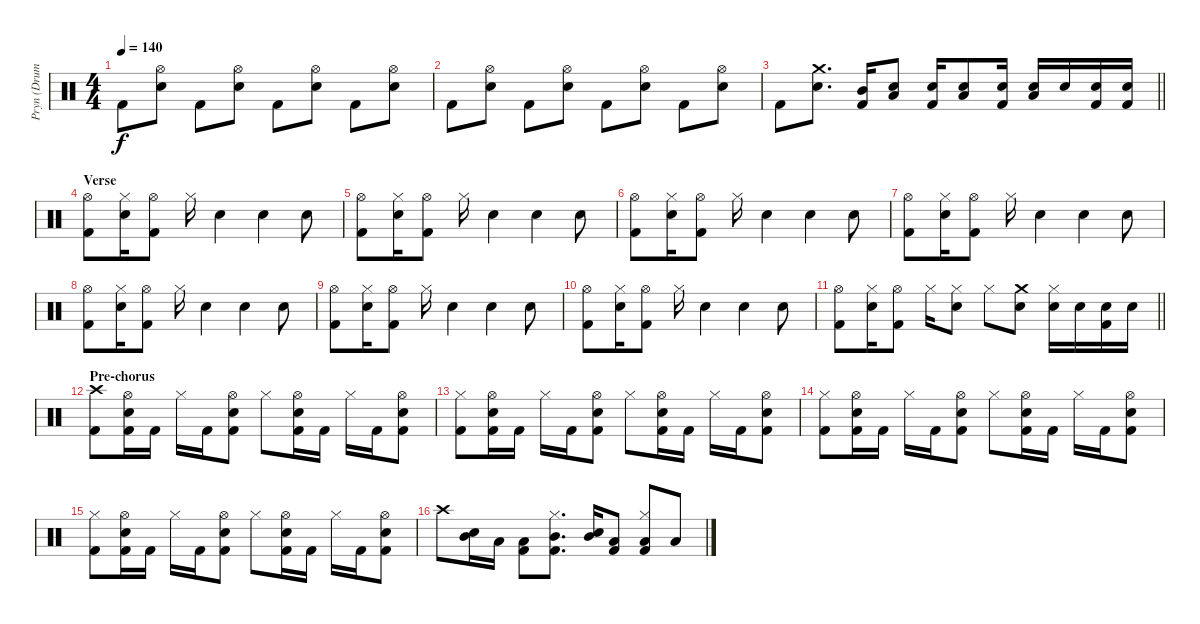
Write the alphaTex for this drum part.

\track ("Pryn (Drums)" "Pryn (Drum") {instrument percussion}
\staff {score}
\articulation defaults
\ts (4 4)
\tempo 140
\clef neutral
\ks c "Kick (hit) 2".8{dy f}
("Snare (hit) 2" "Hi-Hat (open)").8 "Kick (hit) 2".8 ("Snare (hit) 2" "Hi-Hat (open)").8 "Kick (hit) 2".8 ("Snare (hit) 2" "Hi-Hat (open)").8 "Kick (hit) 2".8 ("Snare (hit) 2" "Hi-Hat (open)").8 |
"Kick (hit) 2".8 ("Snare (hit) 2" "Hi-Hat (open)").8 "Kick (hit) 2".8 ("Snare (hit) 2" "Hi-Hat (open)").8 "Kick (hit) 2".8 ("Snare (hit) 2" "Hi-Hat (open)").8 "Kick (hit) 2".8 ("Snare (hit) 2" "Hi-Hat (open)").8 |
\barLineRight lightlight "Kick (hit) 2".8
("Snare (hit) 2" "Crash medium (hit)").8{d} ("Mid Tom (hit)" "Kick (hit) 2").16 ("Low Tom (hit)" "Snare (hit) 2").8 ("Snare (hit) 2" "Kick (hit) 2").16 ("Snare (hit) 2" "Low Tom (hit)").8 ("Snare (hit) 2" "Kick (hit) 2").16 ("Snare (hit) 2" "Low Tom (hit)").16 "Snare (hit) 2".16 ("Snare (hit) 2" "Kick (hit) 2").16 ("Snare (hit) 2" "Kick (hit) 2").16 |
\section ("" "Verse")
("Hi-Hat (open)" "Kick (hit) 2").8 ("Snare (hit) 2" "Hi-Hat (closed)").16 ("Hi-Hat (open)" "Kick (hit) 2").8 "Hi-Hat (closed)".16 "Snare (hit) 2".4 "Snare (hit) 2".4 "Snare (hit) 2".8 |
("Hi-Hat (open)" "Kick (hit) 2").8 ("Snare (hit) 2" "Hi-Hat (closed)").16 ("Hi-Hat (open)" "Kick (hit) 2").8 "Hi-Hat (closed)".16 "Snare (hit) 2".4 "Snare (hit) 2".4 "Snare (hit) 2".8 |
("Hi-Hat (open)" "Kick (hit) 2").8 ("Snare (hit) 2" "Hi-Hat (closed)").16 ("Hi-Hat (open)" "Kick (hit) 2").8 "Hi-Hat (closed)".16 "Snare (hit) 2".4 "Snare (hit) 2".4 "Snare (hit) 2".8 |
("Hi-Hat (open)" "Kick (hit) 2").8 ("Snare (hit) 2" "Hi-Hat (closed)").16 ("Hi-Hat (open)" "Kick (hit) 2").8 "Hi-Hat (closed)".16 "Snare (hit) 2".4 "Snare (hit) 2".4 "Snare (hit) 2".8 |
("Hi-Hat (open)" "Kick (hit) 2").8 ("Snare (hit) 2" "Hi-Hat (closed)").16 ("Hi-Hat (open)" "Kick (hit) 2").8 "Hi-Hat (closed)".16 "Snare (hit) 2".4 "Snare (hit) 2".4 "Snare (hit) 2".8 |
("Hi-Hat (open)" "Kick (hit) 2").8 ("Snare (hit) 2" "Hi-Hat (closed)").16 ("Hi-Hat (open)" "Kick (hit) 2").8 "Hi-Hat (closed)".16 "Snare (hit) 2".4 "Snare (hit) 2".4 "Snare (hit) 2".8 |
("Hi-Hat (open)" "Kick (hit) 2").8 ("Snare (hit) 2" "Hi-Hat (closed)").16 ("Hi-Hat (open)" "Kick (hit) 2").8 "Hi-Hat (closed)".16 "Snare (hit) 2".4 "Snare (hit) 2".4 "Snare (hit) 2".8 |
\barLineRight lightlight
("Hi-Hat (open)" "Kick (hit) 2").8 ("Snare (hit) 2" "Hi-Hat (closed)").16 ("Hi-Hat (open)" "Kick (hit) 2").8 "Hi-Hat (closed)".16 ("Snare (hit) 2" "Hi-Hat (closed)").8 "Hi-Hat (closed)".8 ("Snare (hit) 2" "Crash medium (hit)").8 ("Snare (hit) 2" "Hi-Hat (closed)").16 "Snare (hit) 2".16 ("Snare (hit) 2" "Kick (hit) 2").16 "Snare (hit) 2".16 |
\section ("" "Pre-chorus")
("Crash high (hit)" "Kick (hit) 2").8 ("Snare (hit) 2" "Hi-Hat (open)" "Kick (hit) 2").16 "Kick (hit) 2".16 "Hi-Hat (closed)".16 "Kick (hit) 2".16 ("Snare (hit) 2" "Hi-Hat (open)" "Kick (hit) 2").8 "Hi-Hat (closed)".8 ("Snare (hit) 2" "Hi-Hat (open)" "Kick (hit) 2").16 "Kick (hit) 2".16 "Hi-Hat (closed)".16 "Kick (hit) 2".16 ("Snare (hit) 2" "Hi-Hat (open)" "Kick (hit) 2").8 |
("Kick (hit) 2" "Hi-Hat (closed)").8 ("Snare (hit) 2" "Hi-Hat (open)" "Kick (hit) 2").16 "Kick (hit) 2".16 "Hi-Hat (closed)".16 "Kick (hit) 2".16 ("Snare (hit) 2" "Hi-Hat (open)" "Kick (hit) 2").8 "Hi-Hat (closed)".8 ("Snare (hit) 2" "Hi-Hat (open)" "Kick (hit) 2").16 "Kick (hit) 2".16 "Hi-Hat (closed)".16 "Kick (hit) 2".16 ("Snare (hit) 2" "Hi-Hat (open)" "Kick (hit) 2").8 |
("Kick (hit) 2" "Hi-Hat (closed)").8 ("Snare (hit) 2" "Hi-Hat (open)" "Kick (hit) 2").16 "Kick (hit) 2".16 "Hi-Hat (closed)".16 "Kick (hit) 2".16 ("Snare (hit) 2" "Hi-Hat (open)" "Kick (hit) 2").8 "Hi-Hat (closed)".8 ("Snare (hit) 2" "Hi-Hat (open)" "Kick (hit) 2").16 "Kick (hit) 2".16 "Hi-Hat (closed)".16 "Kick (hit) 2".16 ("Snare (hit) 2" "Hi-Hat (open)" "Kick (hit) 2").8 |
("Kick (hit) 2" "Hi-Hat (closed)").8 ("Snare (hit) 2" "Hi-Hat (open)" "Kick (hit) 2").16 "Kick (hit) 2".16 "Hi-Hat (closed)".16 "Kick (hit) 2".16 ("Snare (hit) 2" "Hi-Hat (open)" "Kick (hit) 2").8 "Hi-Hat (closed)".8 ("Snare (hit) 2" "Hi-Hat (open)" "Kick (hit) 2").16 "Kick (hit) 2".16 "Hi-Hat (closed)".16 "Kick (hit) 2".16 ("Snare (hit) 2" "Hi-Hat (open)" "Kick (hit) 2").8 |
"Crash high (hit)".8 ("Mid Tom (hit)" "Snare (hit) 2").16 "Low Tom (hit)".16 ("Low Floor Tom (hit)" "Kick (hit) 2").8 ("Mid Tom (hit)" "Kick (hit) 2" "Hi-Hat (closed)").8{d} ("Mid Tom (hit)" "Snare (hit) 2").16 ("Low Tom (hit)" "Kick (hit) 2").8 ("Low Floor Tom (hit)" "Kick (hit) 2" "Hi-Hat (closed)").8 "Low Tom (hit)".8
